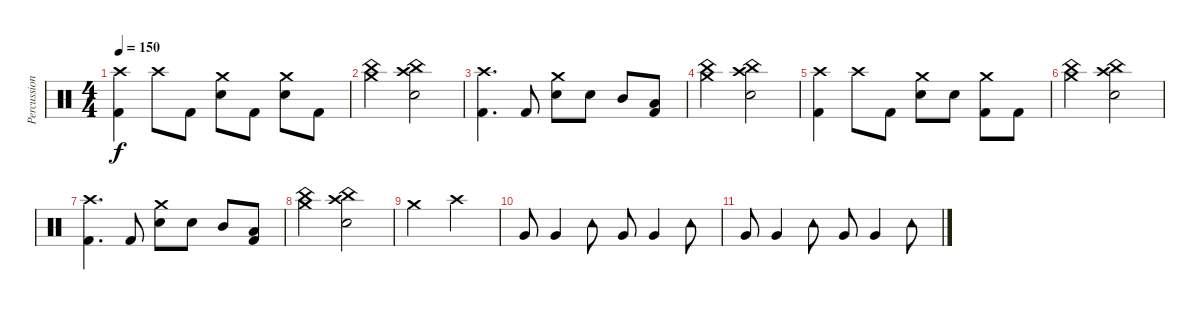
\track ("Percussion" "Percussion") {instrument percussion}
\staff {score}
\articulation defaults
\ts (4 4)
\tempo 150
\clef neutral
\ks c
("Crash high (hit)" "Kick (hit) 2").4{dy f} "Crash high (hit)".8 "Kick (hit) 2".8 ("Crash medium (hit)" "Electric Snare (hit)").8 "Kick (hit) 2".8 ("Crash medium (hit)" "Electric Snare (hit)").8 "Kick (hit) 2".8 |
("Crash medium (hit)" "China (hit)").2 ("Crash high (hit)" "China (hit)" "Electric Snare (hit)").2 |
("Crash high (hit)" "Kick (hit) 2").4{d} "Kick (hit) 2".8 ("Crash medium (hit)" "Electric Snare (hit)").8 "Electric Snare (hit)".8 "Mid Tom (hit)".8 ("Low Tom (hit)" "Kick (hit) 2").8 |
("Crash medium (hit)" "China (hit)").2 ("Crash high (hit)" "China (hit)" "Electric Snare (hit)").2 |
("Crash high (hit)" "Kick (hit) 2").4 "Crash high (hit)".8 "Kick (hit) 2".8 ("Crash medium (hit)" "Electric Snare (hit)").8 "Electric Snare (hit)".8 ("Crash medium (hit)" "Kick (hit) 2").8 "Kick (hit) 2".8 |
("Crash medium (hit)" "China (hit)").2 ("Crash high (hit)" "China (hit)" "Electric Snare (hit)").2 |
("Crash high (hit)" "Kick (hit) 2").4{d} "Kick (hit) 2".8 ("Crash medium (hit)" "Electric Snare (hit)").8 "Electric Snare (hit)".8 "Mid Tom (hit)".8 ("Low Tom (hit)" "Kick (hit) 2").8 |
("Crash medium (hit)" "China (hit)").2 ("Crash high (hit)" "China (hit)" "Electric Snare (hit)").2 |
"Crash medium (hit)".2 "Crash high (hit)".2 |
"Very Low Tom (hit)".8 "Very Low Tom (hit)".4 "Tambourine (hit)".8 "Very Low Tom (hit)".8 "Very Low Tom (hit)".4 "Tambourine (hit)".8 |
"Very Low Tom (hit)".8 "Very Low Tom (hit)".4 "Tambourine (hit)".8 "Very Low Tom (hit)".8 "Very Low Tom (hit)".4 "Tambourine (hit)".8
